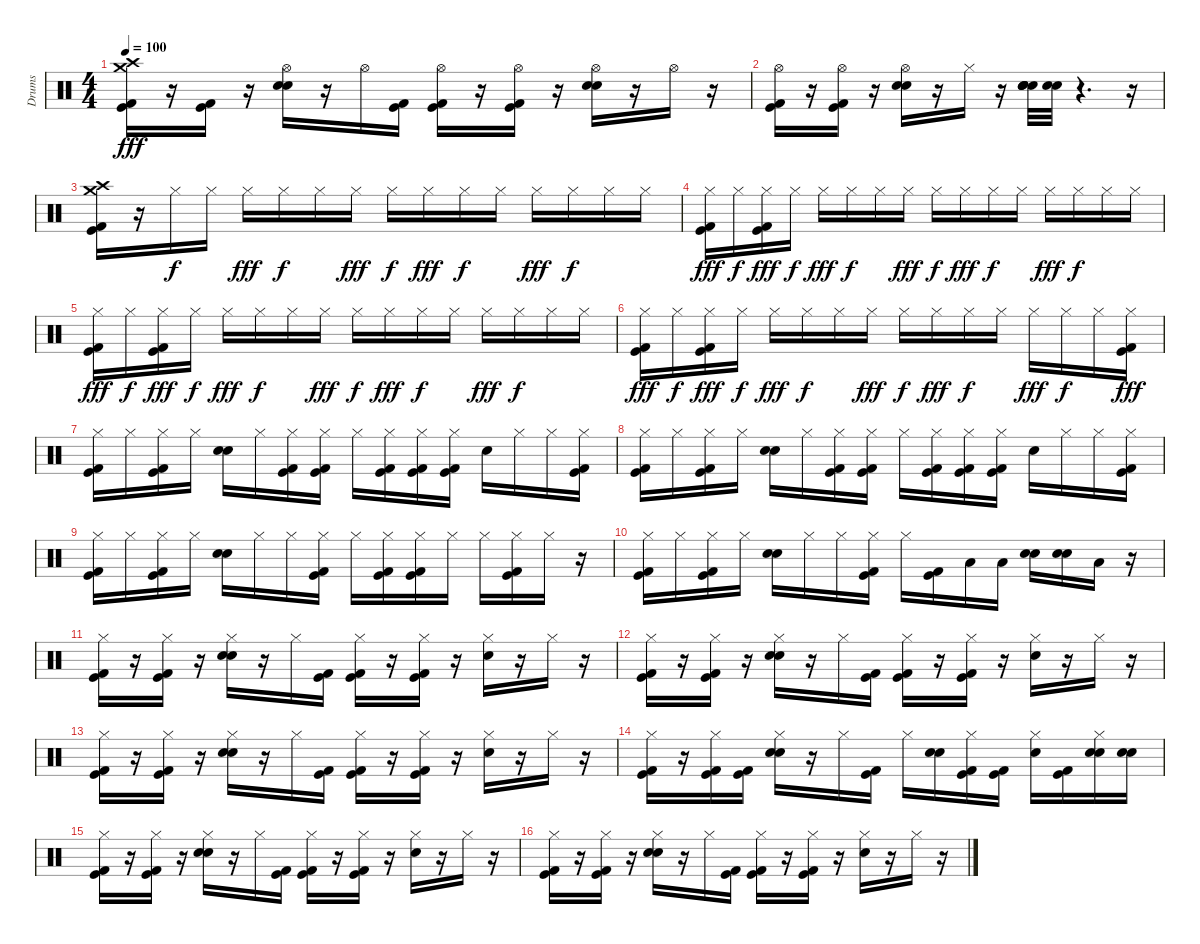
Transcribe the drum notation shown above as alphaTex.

\track ("Drums" "Drums") {instrument percussion}
\staff {score}
\articulation defaults
\ts (4 4)
\tempo 100
\clef neutral
\ks c
("Crash medium (hit)" "Kick (hit)" "Crash high (hit)" "Kick (hit) 2").16{dy fff} r.16 ("Kick (hit)" "Kick (hit) 2").16 r.16 ("Snare (hit) 2" "Electric Snare (hit)" "Hi-Hat (open)").16 r.16 "Hi-Hat (open)".16 ("Kick (hit)" "Kick (hit) 2").16 ("Hi-Hat (open)" "Kick (hit) 2" "Kick (hit)").16 r.16 ("Hi-Hat (open)" "Kick (hit) 2" "Kick (hit)").16 r.16 ("Snare (hit) 2" "Electric Snare (hit)" "Hi-Hat (open)").16 r.16 "Hi-Hat (open)".16 r.16 |
("Kick (hit) 2" "Hi-Hat (open)" "Kick (hit)").16 r.16 ("Kick (hit)" "Kick (hit) 2" "Hi-Hat (open)").16 r.16 ("Hi-Hat (open)" "Electric Snare (hit)" "Snare (hit) 2").16 r.16 "Hi-Hat (closed)".16 r.16 ("Electric Snare (hit)" "Snare (hit) 2" "Snare (hit) 2" "Snare (hit) 2").32 ("Electric Snare (hit)" "Snare (hit) 2").32 r.4{d} r.16 |
("Crash medium (hit)" "Kick (hit)" "Kick (hit) 2" "Crash high (hit)").16 r.16 "Hi-Hat (closed)".16{dy f} "Hi-Hat (closed)".16 "Hi-Hat (closed)".16{dy fff} "Hi-Hat (closed)".16{dy f} "Hi-Hat (closed)".16 "Hi-Hat (closed)".16{dy fff} "Hi-Hat (closed)".16{dy f} "Hi-Hat (closed)".16{dy fff} "Hi-Hat (closed)".16{dy f} "Hi-Hat (closed)".16 "Hi-Hat (closed)".16{dy fff} "Hi-Hat (closed)".16{dy f} "Hi-Hat (closed)".16 "Hi-Hat (closed)".16 |
("Kick (hit)" "Hi-Hat (closed)" "Kick (hit) 2").16{dy fff} "Hi-Hat (closed)".16{dy f} ("Kick (hit) 2" "Kick (hit)" "Hi-Hat (closed)").16{dy fff} "Hi-Hat (closed)".16{dy f} "Hi-Hat (closed)".16{dy fff} "Hi-Hat (closed)".16{dy f} "Hi-Hat (closed)".16 "Hi-Hat (closed)".16{dy fff} "Hi-Hat (closed)".16{dy f} "Hi-Hat (closed)".16{dy fff} "Hi-Hat (closed)".16{dy f} "Hi-Hat (closed)".16 "Hi-Hat (closed)".16{dy fff} "Hi-Hat (closed)".16{dy f} "Hi-Hat (closed)".16 "Hi-Hat (closed)".16 |
("Kick (hit) 2" "Kick (hit)" "Hi-Hat (closed)").16{dy fff} "Hi-Hat (closed)".16{dy f} ("Hi-Hat (closed)" "Kick (hit)" "Kick (hit) 2").16{dy fff} "Hi-Hat (closed)".16{dy f} "Hi-Hat (closed)".16{dy fff} "Hi-Hat (closed)".16{dy f} "Hi-Hat (closed)".16 "Hi-Hat (closed)".16{dy fff} "Hi-Hat (closed)".16{dy f} "Hi-Hat (closed)".16{dy fff} "Hi-Hat (closed)".16{dy f} "Hi-Hat (closed)".16 "Hi-Hat (closed)".16{dy fff} "Hi-Hat (closed)".16{dy f} "Hi-Hat (closed)".16 "Hi-Hat (closed)".16 |
("Hi-Hat (closed)" "Kick (hit)" "Kick (hit) 2").16{dy fff} "Hi-Hat (closed)".16{dy f} ("Kick (hit) 2" "Kick (hit)" "Hi-Hat (closed)").16{dy fff} "Hi-Hat (closed)".16{dy f} "Hi-Hat (closed)".16{dy fff} "Hi-Hat (closed)".16{dy f} "Hi-Hat (closed)".16 "Hi-Hat (closed)".16{dy fff} "Hi-Hat (closed)".16{dy f} "Hi-Hat (closed)".16{dy fff} "Hi-Hat (closed)".16{dy f} "Hi-Hat (closed)".16 "Hi-Hat (closed)".16{dy fff} "Hi-Hat (closed)".16{dy f} "Hi-Hat (closed)".16 ("Kick (hit)" "Kick (hit) 2" "Hi-Hat (closed)").16{dy fff} |
("Kick (hit)" "Hi-Hat (closed)" "Kick (hit) 2").16 "Hi-Hat (closed)".16 ("Kick (hit)" "Hi-Hat (closed)" "Kick (hit) 2").16 "Hi-Hat (closed)".16 ("Electric Snare (hit)" "Snare (hit) 2").16 "Hi-Hat (closed)".16 ("Kick (hit)" "Kick (hit) 2" "Hi-Hat (closed)").16 ("Kick (hit) 2" "Kick (hit)" "Hi-Hat (closed)").16 "Hi-Hat (closed)".16 ("Hi-Hat (closed)" "Kick (hit)" "Kick (hit) 2").16 ("Kick (hit)" "Hi-Hat (closed)" "Kick (hit) 2").16 ("Hi-Hat (closed)" "Kick (hit)" "Kick (hit) 2").16 "Electric Snare (hit)".16 "Hi-Hat (closed)".16 "Hi-Hat (closed)".16 ("Kick (hit)" "Hi-Hat (closed)" "Kick (hit) 2").16 |
("Hi-Hat (closed)" "Kick (hit) 2" "Kick (hit)").16 "Hi-Hat (closed)".16 ("Kick (hit)" "Hi-Hat (closed)" "Kick (hit) 2").16 "Hi-Hat (closed)".16 ("Snare (hit) 2" "Electric Snare (hit)").16 "Hi-Hat (closed)".16 ("Hi-Hat (closed)" "Kick (hit) 2" "Kick (hit)").16 ("Hi-Hat (closed)" "Kick (hit)" "Kick (hit) 2").16 "Hi-Hat (closed)".16 ("Hi-Hat (closed)" "Kick (hit)" "Kick (hit) 2").16 ("Kick (hit)" "Kick (hit) 2" "Hi-Hat (closed)").16 ("Hi-Hat (closed)" "Kick (hit)" "Kick (hit) 2").16 "Electric Snare (hit)".16 "Hi-Hat (closed)".16 "Hi-Hat (closed)".16 ("Kick (hit) 2" "Kick (hit)" "Hi-Hat (closed)").16 |
("Hi-Hat (closed)" "Kick (hit)" "Kick (hit) 2").16 "Hi-Hat (closed)".16 ("Kick (hit) 2" "Hi-Hat (closed)" "Kick (hit)").16 "Hi-Hat (closed)".16 ("Snare (hit) 2" "Electric Snare (hit)").16 "Hi-Hat (closed)".16 "Hi-Hat (closed)".16 ("Hi-Hat (closed)" "Kick (hit) 2" "Kick (hit)").16 "Hi-Hat (closed)".16 ("Hi-Hat (closed)" "Kick (hit)" "Kick (hit) 2").16 ("Kick (hit) 2" "Hi-Hat (closed)" "Kick (hit)").16 "Hi-Hat (closed)".16 "Hi-Hat (closed)".16 ("Kick (hit)" "Kick (hit) 2" "Hi-Hat (closed)").16 "Hi-Hat (closed)".16 r.16 |
("Kick (hit)" "Kick (hit) 2" "Hi-Hat (closed)").16 "Hi-Hat (closed)".16 ("Hi-Hat (closed)" "Kick (hit) 2" "Kick (hit)").16 "Hi-Hat (closed)".16 ("Snare (hit) 2" "Electric Snare (hit)").16 "Hi-Hat (closed)".16 "Hi-Hat (closed)".16 ("Kick (hit) 2" "Kick (hit)" "Hi-Hat (closed)").16 "Hi-Hat (closed)".16 ("Kick (hit)" "Kick (hit) 2").16 "Low Tom (hit)".16 "Low Floor Tom (hit)".16 ("Electric Snare (hit)" "Snare (hit) 2").16 ("Electric Snare (hit)" "Snare (hit) 2").16 "Low Tom (hit)".16 r.16 |
("Kick (hit) 2" "Hi-Hat (closed)" "Kick (hit)").16 r.16 ("Kick (hit) 2" "Hi-Hat (closed)" "Kick (hit)").16 r.16 ("Hi-Hat (closed)" "Electric Snare (hit)" "Snare (hit) 2").16 r.16 "Hi-Hat (closed)".16 ("Kick (hit)" "Kick (hit) 2").16 ("Kick (hit) 2" "Hi-Hat (closed)" "Kick (hit)").16 r.16 ("Kick (hit) 2" "Kick (hit)" "Hi-Hat (closed)").16 r.16 ("Hi-Hat (closed)" "Electric Snare (hit)").16 r.16 "Hi-Hat (closed)".16 r.16 |
("Hi-Hat (closed)" "Kick (hit)" "Kick (hit) 2").16 r.16 ("Kick (hit)" "Hi-Hat (closed)" "Kick (hit) 2").16 r.16 ("Hi-Hat (closed)" "Electric Snare (hit)" "Snare (hit) 2").16 r.16 "Hi-Hat (closed)".16 ("Kick (hit)" "Kick (hit) 2").16 ("Kick (hit) 2" "Kick (hit)" "Hi-Hat (closed)").16 r.16 ("Hi-Hat (closed)" "Kick (hit)" "Kick (hit) 2").16 r.16 ("Hi-Hat (closed)" "Electric Snare (hit)").16 r.16 "Hi-Hat (closed)".16 r.16 |
("Kick (hit)" "Hi-Hat (closed)" "Kick (hit) 2").16 r.16 ("Hi-Hat (closed)" "Kick (hit) 2" "Kick (hit)").16 r.16 ("Hi-Hat (closed)" "Snare (hit) 2" "Electric Snare (hit)").16 r.16 "Hi-Hat (closed)".16 ("Kick (hit) 2" "Kick (hit)").16 ("Hi-Hat (closed)" "Kick (hit)" "Kick (hit) 2").16 r.16 ("Kick (hit) 2" "Kick (hit)" "Hi-Hat (closed)").16 r.16 ("Electric Snare (hit)" "Hi-Hat (closed)").16 r.16 "Hi-Hat (closed)".16 r.16 |
("Hi-Hat (closed)" "Kick (hit) 2" "Kick (hit)").16 r.16 ("Kick (hit) 2" "Kick (hit)" "Hi-Hat (closed)").16 ("Kick (hit)" "Kick (hit) 2").16 ("Hi-Hat (closed)" "Snare (hit) 2" "Electric Snare (hit)").16 r.16 "Hi-Hat (closed)".16 ("Kick (hit) 2" "Kick (hit)").16 "Hi-Hat (closed)".16 ("Snare (hit) 2" "Electric Snare (hit)").16 ("Hi-Hat (closed)" "Kick (hit) 2" "Kick (hit)").16 ("Kick (hit) 2" "Kick (hit)").16 ("Hi-Hat (closed)" "Electric Snare (hit)").16 ("Kick (hit)" "Kick (hit) 2").16 ("Snare (hit) 2" "Electric Snare (hit)" "Hi-Hat (closed)").16 ("Electric Snare (hit)" "Snare (hit) 2").16 |
("Kick (hit) 2" "Kick (hit)" "Hi-Hat (closed)").16 r.16 ("Hi-Hat (closed)" "Kick (hit) 2" "Kick (hit)").16 r.16 ("Electric Snare (hit)" "Hi-Hat (closed)" "Snare (hit) 2").16 r.16 "Hi-Hat (closed)".16 ("Kick (hit)" "Kick (hit) 2").16 ("Kick (hit)" "Hi-Hat (closed)" "Kick (hit) 2").16 r.16 ("Hi-Hat (closed)" "Kick (hit) 2" "Kick (hit)").16 r.16 ("Hi-Hat (closed)" "Electric Snare (hit)").16 r.16 "Hi-Hat (closed)".16 r.16 |
("Kick (hit) 2" "Kick (hit)" "Hi-Hat (closed)").16 r.16 ("Kick (hit)" "Kick (hit) 2" "Hi-Hat (closed)").16 r.16 ("Electric Snare (hit)" "Hi-Hat (closed)" "Snare (hit) 2").16 r.16 "Hi-Hat (closed)".16 ("Kick (hit)" "Kick (hit) 2").16 ("Kick (hit) 2" "Kick (hit)" "Hi-Hat (closed)").16 r.16 ("Kick (hit) 2" "Hi-Hat (closed)" "Kick (hit)").16 r.16 ("Hi-Hat (closed)" "Electric Snare (hit)").16 r.16 "Hi-Hat (closed)".16 r.16
